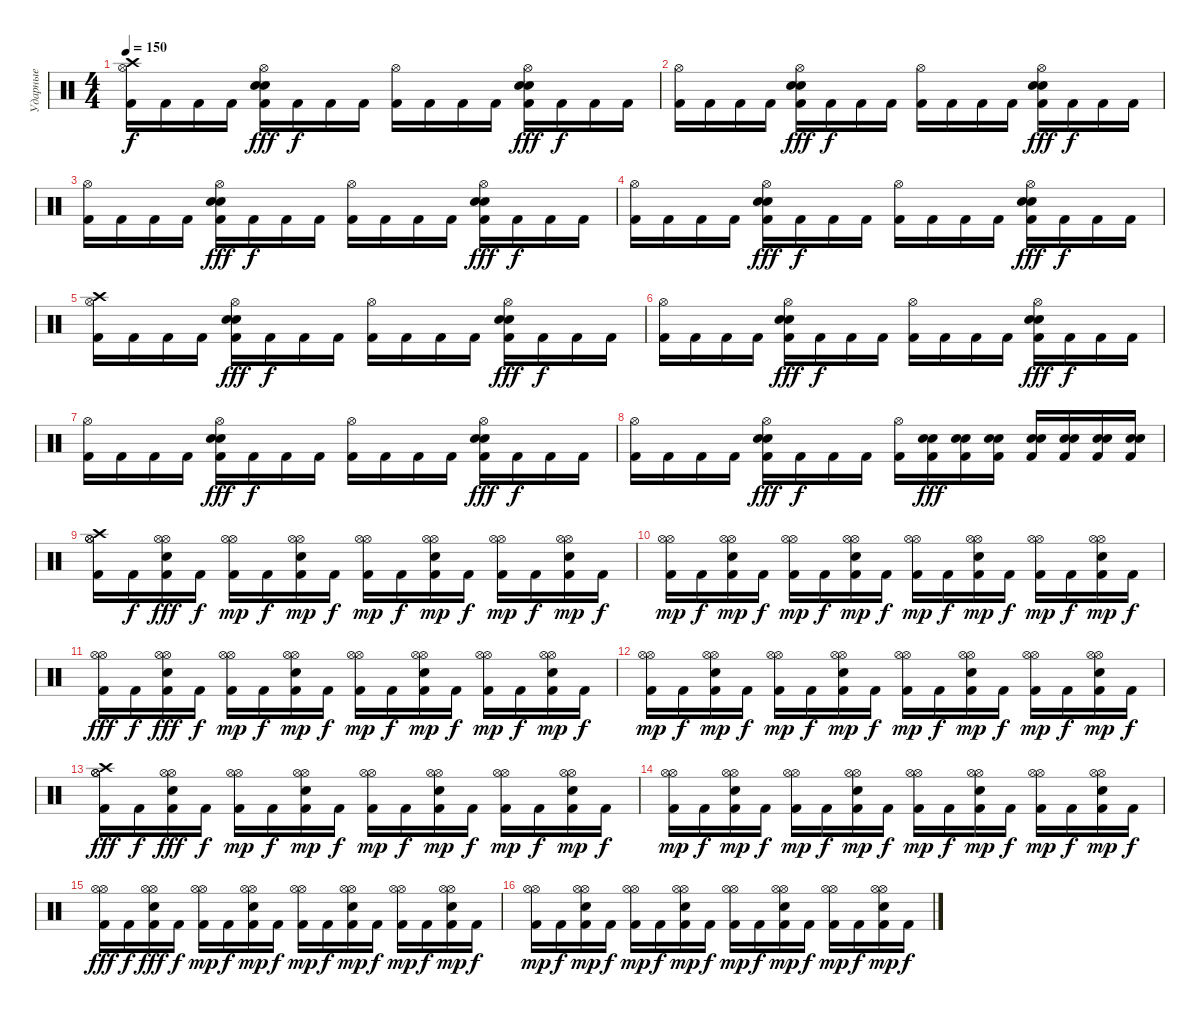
\track ("Ударные" "Ударные") {instrument percussion}
\staff {score}
\articulation defaults
\ts (4 4)
\tempo 150
\clef neutral
\ks c
("Crash high (hit)" "Hi-Hat (open)" "Kick (hit) 2").16{dy f} "Kick (hit) 2".16 "Kick (hit) 2".16 "Kick (hit) 2".16 ("Hi-Hat (open)" "Snare (hit) 2" "Snare (hit) 2" "Kick (hit) 2").16{dy fff} "Kick (hit) 2".16{dy f} "Kick (hit) 2".16 "Kick (hit) 2".16 ("Hi-Hat (open)" "Kick (hit) 2").16 "Kick (hit) 2".16 "Kick (hit) 2".16 "Kick (hit) 2".16 ("Hi-Hat (open)" "Snare (hit) 2" "Snare (hit) 2" "Kick (hit) 2").16{dy fff} "Kick (hit) 2".16{dy f} "Kick (hit) 2".16 "Kick (hit) 2".16 |
("Hi-Hat (open)" "Kick (hit) 2").16 "Kick (hit) 2".16 "Kick (hit) 2".16 "Kick (hit) 2".16 ("Hi-Hat (open)" "Snare (hit) 2" "Snare (hit) 2" "Kick (hit) 2").16{dy fff} "Kick (hit) 2".16{dy f} "Kick (hit) 2".16 "Kick (hit) 2".16 ("Hi-Hat (open)" "Kick (hit) 2").16 "Kick (hit) 2".16 "Kick (hit) 2".16 "Kick (hit) 2".16 ("Hi-Hat (open)" "Snare (hit) 2" "Snare (hit) 2" "Kick (hit) 2").16{dy fff} "Kick (hit) 2".16{dy f} "Kick (hit) 2".16 "Kick (hit) 2".16 |
("Hi-Hat (open)" "Kick (hit) 2").16 "Kick (hit) 2".16 "Kick (hit) 2".16 "Kick (hit) 2".16 ("Hi-Hat (open)" "Snare (hit) 2" "Snare (hit) 2" "Kick (hit) 2").16{dy fff} "Kick (hit) 2".16{dy f} "Kick (hit) 2".16 "Kick (hit) 2".16 ("Hi-Hat (open)" "Kick (hit) 2").16 "Kick (hit) 2".16 "Kick (hit) 2".16 "Kick (hit) 2".16 ("Hi-Hat (open)" "Snare (hit) 2" "Snare (hit) 2" "Kick (hit) 2").16{dy fff} "Kick (hit) 2".16{dy f} "Kick (hit) 2".16 "Kick (hit) 2".16 |
("Hi-Hat (open)" "Kick (hit) 2").16 "Kick (hit) 2".16 "Kick (hit) 2".16 "Kick (hit) 2".16 ("Hi-Hat (open)" "Snare (hit) 2" "Snare (hit) 2" "Kick (hit) 2").16{dy fff} "Kick (hit) 2".16{dy f} "Kick (hit) 2".16 "Kick (hit) 2".16 ("Hi-Hat (open)" "Kick (hit) 2").16 "Kick (hit) 2".16 "Kick (hit) 2".16 "Kick (hit) 2".16 ("Hi-Hat (open)" "Snare (hit) 2" "Snare (hit) 2" "Kick (hit) 2").16{dy fff} "Kick (hit) 2".16{dy f} "Kick (hit) 2".16 "Kick (hit) 2".16 |
("Crash high (hit)" "Hi-Hat (open)" "Kick (hit) 2").16 "Kick (hit) 2".16 "Kick (hit) 2".16 "Kick (hit) 2".16 ("Hi-Hat (open)" "Snare (hit) 2" "Snare (hit) 2" "Kick (hit) 2").16{dy fff} "Kick (hit) 2".16{dy f} "Kick (hit) 2".16 "Kick (hit) 2".16 ("Hi-Hat (open)" "Kick (hit) 2").16 "Kick (hit) 2".16 "Kick (hit) 2".16 "Kick (hit) 2".16 ("Hi-Hat (open)" "Snare (hit) 2" "Snare (hit) 2" "Kick (hit) 2").16{dy fff} "Kick (hit) 2".16{dy f} "Kick (hit) 2".16 "Kick (hit) 2".16 |
("Hi-Hat (open)" "Kick (hit) 2").16 "Kick (hit) 2".16 "Kick (hit) 2".16 "Kick (hit) 2".16 ("Hi-Hat (open)" "Snare (hit) 2" "Snare (hit) 2" "Kick (hit) 2").16{dy fff} "Kick (hit) 2".16{dy f} "Kick (hit) 2".16 "Kick (hit) 2".16 ("Hi-Hat (open)" "Kick (hit) 2").16 "Kick (hit) 2".16 "Kick (hit) 2".16 "Kick (hit) 2".16 ("Hi-Hat (open)" "Snare (hit) 2" "Snare (hit) 2" "Kick (hit) 2").16{dy fff} "Kick (hit) 2".16{dy f} "Kick (hit) 2".16 "Kick (hit) 2".16 |
("Hi-Hat (open)" "Kick (hit) 2").16 "Kick (hit) 2".16 "Kick (hit) 2".16 "Kick (hit) 2".16 ("Hi-Hat (open)" "Snare (hit) 2" "Snare (hit) 2" "Kick (hit) 2").16{dy fff} "Kick (hit) 2".16{dy f} "Kick (hit) 2".16 "Kick (hit) 2".16 ("Hi-Hat (open)" "Kick (hit) 2").16 "Kick (hit) 2".16 "Kick (hit) 2".16 "Kick (hit) 2".16 ("Hi-Hat (open)" "Snare (hit) 2" "Snare (hit) 2" "Kick (hit) 2").16{dy fff} "Kick (hit) 2".16{dy f} "Kick (hit) 2".16 "Kick (hit) 2".16 |
("Hi-Hat (open)" "Kick (hit) 2").16 "Kick (hit) 2".16 "Kick (hit) 2".16 "Kick (hit) 2".16 ("Hi-Hat (open)" "Snare (hit) 2" "Snare (hit) 2" "Kick (hit) 2").16{dy fff} "Kick (hit) 2".16{dy f} "Kick (hit) 2".16 "Kick (hit) 2".16 ("Hi-Hat (open)" "Kick (hit) 2").16 ("Snare (hit) 2" "Snare (hit) 2" "Kick (hit) 2").16{dy fff} ("Snare (hit) 2" "Snare (hit) 2" "Kick (hit) 2").16 ("Snare (hit) 2" "Snare (hit) 2" "Kick (hit) 2").16 ("Snare (hit) 2" "Snare (hit) 2" "Kick (hit) 2").16 ("Snare (hit) 2" "Snare (hit) 2" "Kick (hit) 2").16 ("Snare (hit) 2" "Snare (hit) 2" "Kick (hit) 2").16 ("Snare (hit) 2" "Snare (hit) 2" "Kick (hit) 2").16 |
("Crash high (hit)" "Hi-Hat (open)" "Hi-Hat (open)" "Kick (hit) 2").16 "Kick (hit) 2".16{dy f} ("Hi-Hat (open)" "Hi-Hat (open)" "Snare (hit) 2" "Kick (hit) 2").16{dy fff} "Kick (hit) 2".16{dy f} ("Hi-Hat (open)" "Hi-Hat (open)" "Kick (hit) 2").16{dy mp} "Kick (hit) 2".16{dy f} ("Hi-Hat (open)" "Hi-Hat (open)" "Snare (hit) 2" "Kick (hit) 2").16{dy mp} "Kick (hit) 2".16{dy f} ("Hi-Hat (open)" "Hi-Hat (open)" "Kick (hit) 2").16{dy mp} "Kick (hit) 2".16{dy f} ("Hi-Hat (open)" "Hi-Hat (open)" "Snare (hit) 2" "Kick (hit) 2").16{dy mp} "Kick (hit) 2".16{dy f} ("Hi-Hat (open)" "Hi-Hat (open)" "Kick (hit) 2").16{dy mp} "Kick (hit) 2".16{dy f} ("Hi-Hat (open)" "Hi-Hat (open)" "Snare (hit) 2" "Kick (hit) 2").16{dy mp} "Kick (hit) 2".16{dy f} |
("Hi-Hat (open)" "Hi-Hat (open)" "Kick (hit) 2").16{dy mp} "Kick (hit) 2".16{dy f} ("Hi-Hat (open)" "Hi-Hat (open)" "Snare (hit) 2" "Kick (hit) 2").16{dy mp} "Kick (hit) 2".16{dy f} ("Hi-Hat (open)" "Hi-Hat (open)" "Kick (hit) 2").16{dy mp} "Kick (hit) 2".16{dy f} ("Hi-Hat (open)" "Hi-Hat (open)" "Snare (hit) 2" "Kick (hit) 2").16{dy mp} "Kick (hit) 2".16{dy f} ("Hi-Hat (open)" "Hi-Hat (open)" "Kick (hit) 2").16{dy mp} "Kick (hit) 2".16{dy f} ("Hi-Hat (open)" "Hi-Hat (open)" "Snare (hit) 2" "Kick (hit) 2").16{dy mp} "Kick (hit) 2".16{dy f} ("Hi-Hat (open)" "Hi-Hat (open)" "Kick (hit) 2").16{dy mp} "Kick (hit) 2".16{dy f} ("Hi-Hat (open)" "Hi-Hat (open)" "Snare (hit) 2" "Kick (hit) 2").16{dy mp} "Kick (hit) 2".16{dy f} |
("Hi-Hat (open)" "Hi-Hat (open)" "Kick (hit) 2").16{dy fff} "Kick (hit) 2".16{dy f} ("Hi-Hat (open)" "Hi-Hat (open)" "Snare (hit) 2" "Kick (hit) 2").16{dy fff} "Kick (hit) 2".16{dy f} ("Hi-Hat (open)" "Hi-Hat (open)" "Kick (hit) 2").16{dy mp} "Kick (hit) 2".16{dy f} ("Hi-Hat (open)" "Hi-Hat (open)" "Snare (hit) 2" "Kick (hit) 2").16{dy mp} "Kick (hit) 2".16{dy f} ("Hi-Hat (open)" "Hi-Hat (open)" "Kick (hit) 2").16{dy mp} "Kick (hit) 2".16{dy f} ("Hi-Hat (open)" "Hi-Hat (open)" "Snare (hit) 2" "Kick (hit) 2").16{dy mp} "Kick (hit) 2".16{dy f} ("Hi-Hat (open)" "Hi-Hat (open)" "Kick (hit) 2").16{dy mp} "Kick (hit) 2".16{dy f} ("Hi-Hat (open)" "Hi-Hat (open)" "Snare (hit) 2" "Kick (hit) 2").16{dy mp} "Kick (hit) 2".16{dy f} |
("Hi-Hat (open)" "Hi-Hat (open)" "Kick (hit) 2").16{dy mp} "Kick (hit) 2".16{dy f} ("Hi-Hat (open)" "Hi-Hat (open)" "Snare (hit) 2" "Kick (hit) 2").16{dy mp} "Kick (hit) 2".16{dy f} ("Hi-Hat (open)" "Hi-Hat (open)" "Kick (hit) 2").16{dy mp} "Kick (hit) 2".16{dy f} ("Hi-Hat (open)" "Hi-Hat (open)" "Snare (hit) 2" "Kick (hit) 2").16{dy mp} "Kick (hit) 2".16{dy f} ("Hi-Hat (open)" "Hi-Hat (open)" "Kick (hit) 2").16{dy mp} "Kick (hit) 2".16{dy f} ("Hi-Hat (open)" "Hi-Hat (open)" "Snare (hit) 2" "Kick (hit) 2").16{dy mp} "Kick (hit) 2".16{dy f} ("Hi-Hat (open)" "Hi-Hat (open)" "Kick (hit) 2").16{dy mp} "Kick (hit) 2".16{dy f} ("Hi-Hat (open)" "Hi-Hat (open)" "Snare (hit) 2" "Kick (hit) 2").16{dy mp} "Kick (hit) 2".16{dy f} |
("Crash high (hit)" "Hi-Hat (open)" "Hi-Hat (open)" "Kick (hit) 2").16{dy fff} "Kick (hit) 2".16{dy f} ("Hi-Hat (open)" "Hi-Hat (open)" "Snare (hit) 2" "Kick (hit) 2").16{dy fff} "Kick (hit) 2".16{dy f} ("Hi-Hat (open)" "Hi-Hat (open)" "Kick (hit) 2").16{dy mp} "Kick (hit) 2".16{dy f} ("Hi-Hat (open)" "Hi-Hat (open)" "Snare (hit) 2" "Kick (hit) 2").16{dy mp} "Kick (hit) 2".16{dy f} ("Hi-Hat (open)" "Hi-Hat (open)" "Kick (hit) 2").16{dy mp} "Kick (hit) 2".16{dy f} ("Hi-Hat (open)" "Hi-Hat (open)" "Snare (hit) 2" "Kick (hit) 2").16{dy mp} "Kick (hit) 2".16{dy f} ("Hi-Hat (open)" "Hi-Hat (open)" "Kick (hit) 2").16{dy mp} "Kick (hit) 2".16{dy f} ("Hi-Hat (open)" "Hi-Hat (open)" "Snare (hit) 2" "Kick (hit) 2").16{dy mp} "Kick (hit) 2".16{dy f} |
("Hi-Hat (open)" "Hi-Hat (open)" "Kick (hit) 2").16{dy mp} "Kick (hit) 2".16{dy f} ("Hi-Hat (open)" "Hi-Hat (open)" "Snare (hit) 2" "Kick (hit) 2").16{dy mp} "Kick (hit) 2".16{dy f} ("Hi-Hat (open)" "Hi-Hat (open)" "Kick (hit) 2").16{dy mp} "Kick (hit) 2".16{dy f} ("Hi-Hat (open)" "Hi-Hat (open)" "Snare (hit) 2" "Kick (hit) 2").16{dy mp} "Kick (hit) 2".16{dy f} ("Hi-Hat (open)" "Hi-Hat (open)" "Kick (hit) 2").16{dy mp} "Kick (hit) 2".16{dy f} ("Hi-Hat (open)" "Hi-Hat (open)" "Snare (hit) 2" "Kick (hit) 2").16{dy mp} "Kick (hit) 2".16{dy f} ("Hi-Hat (open)" "Hi-Hat (open)" "Kick (hit) 2").16{dy mp} "Kick (hit) 2".16{dy f} ("Hi-Hat (open)" "Hi-Hat (open)" "Snare (hit) 2" "Kick (hit) 2").16{dy mp} "Kick (hit) 2".16{dy f} |
("Hi-Hat (open)" "Hi-Hat (open)" "Kick (hit) 2").16{dy fff} "Kick (hit) 2".16{dy f} ("Hi-Hat (open)" "Hi-Hat (open)" "Snare (hit) 2" "Kick (hit) 2").16{dy fff} "Kick (hit) 2".16{dy f} ("Hi-Hat (open)" "Hi-Hat (open)" "Kick (hit) 2").16{dy mp} "Kick (hit) 2".16{dy f} ("Hi-Hat (open)" "Hi-Hat (open)" "Snare (hit) 2" "Kick (hit) 2").16{dy mp} "Kick (hit) 2".16{dy f} ("Hi-Hat (open)" "Hi-Hat (open)" "Kick (hit) 2").16{dy mp} "Kick (hit) 2".16{dy f} ("Hi-Hat (open)" "Hi-Hat (open)" "Snare (hit) 2" "Kick (hit) 2").16{dy mp} "Kick (hit) 2".16{dy f} ("Hi-Hat (open)" "Hi-Hat (open)" "Kick (hit) 2").16{dy mp} "Kick (hit) 2".16{dy f} ("Hi-Hat (open)" "Hi-Hat (open)" "Snare (hit) 2" "Kick (hit) 2").16{dy mp} "Kick (hit) 2".16{dy f} |
("Hi-Hat (open)" "Hi-Hat (open)" "Kick (hit) 2").16{dy mp} "Kick (hit) 2".16{dy f} ("Hi-Hat (open)" "Hi-Hat (open)" "Snare (hit) 2" "Kick (hit) 2").16{dy mp} "Kick (hit) 2".16{dy f} ("Hi-Hat (open)" "Hi-Hat (open)" "Kick (hit) 2").16{dy mp} "Kick (hit) 2".16{dy f} ("Hi-Hat (open)" "Hi-Hat (open)" "Snare (hit) 2" "Kick (hit) 2").16{dy mp} "Kick (hit) 2".16{dy f} ("Hi-Hat (open)" "Hi-Hat (open)" "Kick (hit) 2").16{dy mp} "Kick (hit) 2".16{dy f} ("Hi-Hat (open)" "Hi-Hat (open)" "Snare (hit) 2" "Kick (hit) 2").16{dy mp} "Kick (hit) 2".16{dy f} ("Hi-Hat (open)" "Hi-Hat (open)" "Kick (hit) 2").16{dy mp} "Kick (hit) 2".16{dy f} ("Hi-Hat (open)" "Hi-Hat (open)" "Snare (hit) 2" "Kick (hit) 2").16{dy mp} "Kick (hit) 2".16{dy f}
